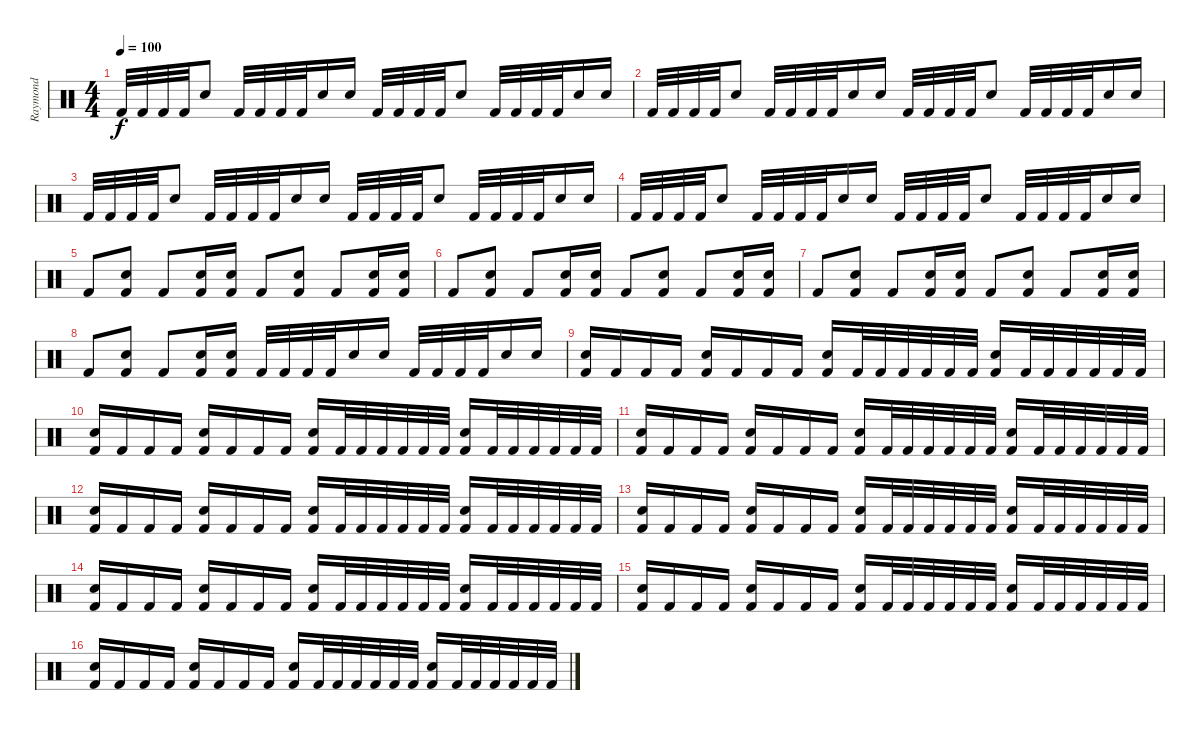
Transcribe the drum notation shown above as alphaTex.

\track ("Raymond" "Raymond") {instrument percussion}
\staff {score}
\articulation defaults
\ts (4 4)
\tempo 100
\clef neutral
\ks c "Kick (hit) 2".32{dy f} "Kick (hit) 2".32 "Kick (hit) 2".32 "Kick (hit) 2".32 "Snare (hit) 2".8 "Kick (hit) 2".32 "Kick (hit) 2".32 "Kick (hit) 2".32 "Kick (hit) 2".32 "Snare (hit) 2".16 "Snare (hit) 2".16 "Kick (hit) 2".32 "Kick (hit) 2".32 "Kick (hit) 2".32 "Kick (hit) 2".32 "Snare (hit) 2".8 "Kick (hit) 2".32 "Kick (hit) 2".32 "Kick (hit) 2".32 "Kick (hit) 2".32 "Snare (hit) 2".16 "Snare (hit) 2".16
|
"Kick (hit) 2".32 "Kick (hit) 2".32 "Kick (hit) 2".32 "Kick (hit) 2".32 "Snare (hit) 2".8 "Kick (hit) 2".32 "Kick (hit) 2".32 "Kick (hit) 2".32 "Kick (hit) 2".32 "Snare (hit) 2".16 "Snare (hit) 2".16 "Kick (hit) 2".32 "Kick (hit) 2".32 "Kick (hit) 2".32 "Kick (hit) 2".32 "Snare (hit) 2".8 "Kick (hit) 2".32 "Kick (hit) 2".32 "Kick (hit) 2".32 "Kick (hit) 2".32 "Snare (hit) 2".16 "Snare (hit) 2".16 |
"Kick (hit) 2".32 "Kick (hit) 2".32 "Kick (hit) 2".32 "Kick (hit) 2".32 "Snare (hit) 2".8 "Kick (hit) 2".32 "Kick (hit) 2".32 "Kick (hit) 2".32 "Kick (hit) 2".32 "Snare (hit) 2".16 "Snare (hit) 2".16 "Kick (hit) 2".32 "Kick (hit) 2".32 "Kick (hit) 2".32 "Kick (hit) 2".32 "Snare (hit) 2".8 "Kick (hit) 2".32 "Kick (hit) 2".32 "Kick (hit) 2".32 "Kick (hit) 2".32 "Snare (hit) 2".16 "Snare (hit) 2".16 |
"Kick (hit) 2".32 "Kick (hit) 2".32 "Kick (hit) 2".32 "Kick (hit) 2".32 "Snare (hit) 2".8 "Kick (hit) 2".32 "Kick (hit) 2".32 "Kick (hit) 2".32 "Kick (hit) 2".32 "Snare (hit) 2".16 "Snare (hit) 2".16 "Kick (hit) 2".32 "Kick (hit) 2".32 "Kick (hit) 2".32 "Kick (hit) 2".32 "Snare (hit) 2".8 "Kick (hit) 2".32 "Kick (hit) 2".32 "Kick (hit) 2".32 "Kick (hit) 2".32 "Snare (hit) 2".16 "Snare (hit) 2".16 |
"Kick (hit) 2".8 ("Snare (hit) 2" "Kick (hit) 2").8 "Kick (hit) 2".8 ("Snare (hit) 2" "Kick (hit) 2").16 ("Snare (hit) 2" "Kick (hit) 2").16 "Kick (hit) 2".8 ("Snare (hit) 2" "Kick (hit) 2").8 "Kick (hit) 2".8 ("Snare (hit) 2" "Kick (hit) 2").16 ("Snare (hit) 2" "Kick (hit) 2").16 |
"Kick (hit) 2".8 ("Snare (hit) 2" "Kick (hit) 2").8 "Kick (hit) 2".8 ("Snare (hit) 2" "Kick (hit) 2").16 ("Snare (hit) 2" "Kick (hit) 2").16 "Kick (hit) 2".8 ("Snare (hit) 2" "Kick (hit) 2").8 "Kick (hit) 2".8 ("Snare (hit) 2" "Kick (hit) 2").16 ("Snare (hit) 2" "Kick (hit) 2").16 |
"Kick (hit) 2".8 ("Snare (hit) 2" "Kick (hit) 2").8 "Kick (hit) 2".8 ("Snare (hit) 2" "Kick (hit) 2").16 ("Snare (hit) 2" "Kick (hit) 2").16 "Kick (hit) 2".8 ("Snare (hit) 2" "Kick (hit) 2").8 "Kick (hit) 2".8 ("Snare (hit) 2" "Kick (hit) 2").16 ("Snare (hit) 2" "Kick (hit) 2").16 |
"Kick (hit) 2".8 ("Snare (hit) 2" "Kick (hit) 2").8 "Kick (hit) 2".8 ("Snare (hit) 2" "Kick (hit) 2").16 ("Snare (hit) 2" "Kick (hit) 2").16 "Kick (hit) 2".32 "Kick (hit) 2".32 "Kick (hit) 2".32 "Kick (hit) 2".32 "Snare (hit) 2".16 "Snare (hit) 2".16 "Kick (hit) 2".32 "Kick (hit) 2".32 "Kick (hit) 2".32 "Kick (hit) 2".32 "Snare (hit) 2".16 "Snare (hit) 2".16 |
("Snare (hit) 2" "Kick (hit) 2").16 "Kick (hit) 2".16 "Kick (hit) 2".16 "Kick (hit) 2".16 ("Snare (hit) 2" "Kick (hit) 2").16 "Kick (hit) 2".16 "Kick (hit) 2".16 "Kick (hit) 2".16 ("Snare (hit) 2" "Kick (hit) 2").16 "Kick (hit) 2".32 "Kick (hit) 2".32 "Kick (hit) 2".32 "Kick (hit) 2".32 "Kick (hit) 2".32 "Kick (hit) 2".32 ("Snare (hit) 2" "Kick (hit) 2").16 "Kick (hit) 2".32 "Kick (hit) 2".32 "Kick (hit) 2".32 "Kick (hit) 2".32 "Kick (hit) 2".32 "Kick (hit) 2".32 |
("Snare (hit) 2" "Kick (hit) 2").16 "Kick (hit) 2".16 "Kick (hit) 2".16 "Kick (hit) 2".16 ("Snare (hit) 2" "Kick (hit) 2").16 "Kick (hit) 2".16 "Kick (hit) 2".16 "Kick (hit) 2".16 ("Snare (hit) 2" "Kick (hit) 2").16 "Kick (hit) 2".32 "Kick (hit) 2".32 "Kick (hit) 2".32 "Kick (hit) 2".32 "Kick (hit) 2".32 "Kick (hit) 2".32 ("Snare (hit) 2" "Kick (hit) 2").16 "Kick (hit) 2".32 "Kick (hit) 2".32 "Kick (hit) 2".32 "Kick (hit) 2".32 "Kick (hit) 2".32 "Kick (hit) 2".32 |
("Snare (hit) 2" "Kick (hit) 2").16 "Kick (hit) 2".16 "Kick (hit) 2".16 "Kick (hit) 2".16 ("Snare (hit) 2" "Kick (hit) 2").16 "Kick (hit) 2".16 "Kick (hit) 2".16 "Kick (hit) 2".16 ("Snare (hit) 2" "Kick (hit) 2").16 "Kick (hit) 2".32 "Kick (hit) 2".32 "Kick (hit) 2".32 "Kick (hit) 2".32 "Kick (hit) 2".32 "Kick (hit) 2".32 ("Snare (hit) 2" "Kick (hit) 2").16 "Kick (hit) 2".32 "Kick (hit) 2".32 "Kick (hit) 2".32 "Kick (hit) 2".32 "Kick (hit) 2".32 "Kick (hit) 2".32 |
("Snare (hit) 2" "Kick (hit) 2").16 "Kick (hit) 2".16 "Kick (hit) 2".16 "Kick (hit) 2".16 ("Snare (hit) 2" "Kick (hit) 2").16 "Kick (hit) 2".16 "Kick (hit) 2".16 "Kick (hit) 2".16 ("Snare (hit) 2" "Kick (hit) 2").16 "Kick (hit) 2".32 "Kick (hit) 2".32 "Kick (hit) 2".32 "Kick (hit) 2".32 "Kick (hit) 2".32 "Kick (hit) 2".32 ("Snare (hit) 2" "Kick (hit) 2").16 "Kick (hit) 2".32 "Kick (hit) 2".32 "Kick (hit) 2".32 "Kick (hit) 2".32 "Kick (hit) 2".32 "Kick (hit) 2".32 |
("Snare (hit) 2" "Kick (hit) 2").16 "Kick (hit) 2".16 "Kick (hit) 2".16 "Kick (hit) 2".16 ("Snare (hit) 2" "Kick (hit) 2").16 "Kick (hit) 2".16 "Kick (hit) 2".16 "Kick (hit) 2".16 ("Snare (hit) 2" "Kick (hit) 2").16 "Kick (hit) 2".32 "Kick (hit) 2".32 "Kick (hit) 2".32 "Kick (hit) 2".32 "Kick (hit) 2".32 "Kick (hit) 2".32 ("Snare (hit) 2" "Kick (hit) 2").16 "Kick (hit) 2".32 "Kick (hit) 2".32 "Kick (hit) 2".32 "Kick (hit) 2".32 "Kick (hit) 2".32 "Kick (hit) 2".32 |
("Snare (hit) 2" "Kick (hit) 2").16 "Kick (hit) 2".16 "Kick (hit) 2".16 "Kick (hit) 2".16 ("Snare (hit) 2" "Kick (hit) 2").16 "Kick (hit) 2".16 "Kick (hit) 2".16 "Kick (hit) 2".16 ("Snare (hit) 2" "Kick (hit) 2").16 "Kick (hit) 2".32 "Kick (hit) 2".32 "Kick (hit) 2".32 "Kick (hit) 2".32 "Kick (hit) 2".32 "Kick (hit) 2".32 ("Snare (hit) 2" "Kick (hit) 2").16 "Kick (hit) 2".32 "Kick (hit) 2".32 "Kick (hit) 2".32 "Kick (hit) 2".32 "Kick (hit) 2".32 "Kick (hit) 2".32 |
("Snare (hit) 2" "Kick (hit) 2").16 "Kick (hit) 2".16 "Kick (hit) 2".16 "Kick (hit) 2".16 ("Snare (hit) 2" "Kick (hit) 2").16 "Kick (hit) 2".16 "Kick (hit) 2".16 "Kick (hit) 2".16 ("Snare (hit) 2" "Kick (hit) 2").16 "Kick (hit) 2".32 "Kick (hit) 2".32 "Kick (hit) 2".32 "Kick (hit) 2".32 "Kick (hit) 2".32 "Kick (hit) 2".32 ("Snare (hit) 2" "Kick (hit) 2").16 "Kick (hit) 2".32 "Kick (hit) 2".32 "Kick (hit) 2".32 "Kick (hit) 2".32 "Kick (hit) 2".32 "Kick (hit) 2".32 |
("Snare (hit) 2" "Kick (hit) 2").16 "Kick (hit) 2".16 "Kick (hit) 2".16 "Kick (hit) 2".16 ("Snare (hit) 2" "Kick (hit) 2").16 "Kick (hit) 2".16 "Kick (hit) 2".16 "Kick (hit) 2".16 ("Snare (hit) 2" "Kick (hit) 2").16 "Kick (hit) 2".32 "Kick (hit) 2".32 "Kick (hit) 2".32 "Kick (hit) 2".32 "Kick (hit) 2".32 "Kick (hit) 2".32 ("Snare (hit) 2" "Kick (hit) 2").16 "Kick (hit) 2".32 "Kick (hit) 2".32 "Kick (hit) 2".32 "Kick (hit) 2".32 "Kick (hit) 2".32 "Kick (hit) 2".32
